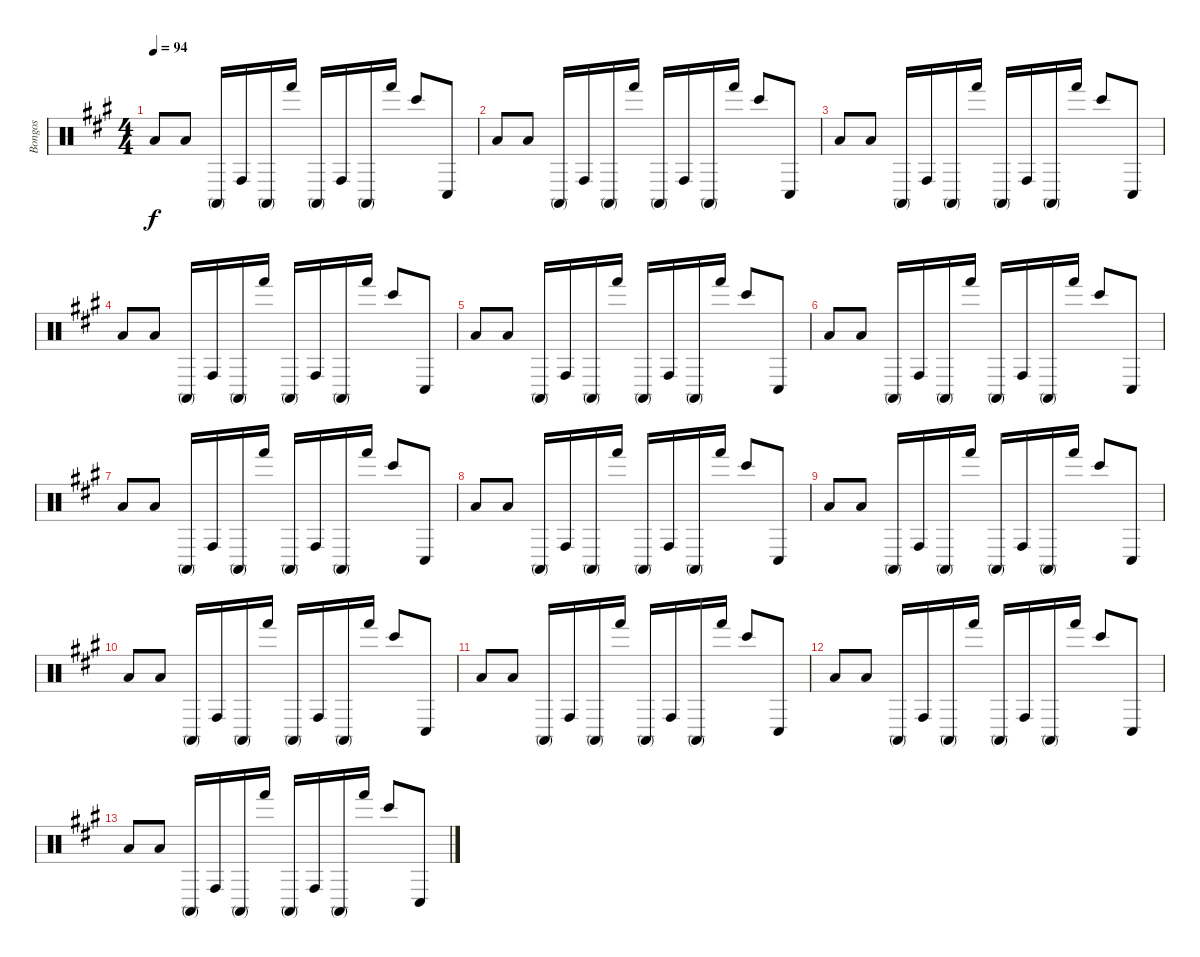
\track ("Bongos" "Bongos") {instrument percussion}
\staff {score}
\articulation defaults
\ts (4 4)
\tempo 94
\clef neutral
\ks a "Low Floor Tom (hit)".8{dy f} "Low Floor Tom (hit)".8 "Conga high (mute)".16 "Conga high (hit)".16 "Conga high (mute)".16 "Hand (hit)".16 "Conga high (mute)".16 "Conga high (hit)".16 "Conga high (mute)".16 "Hand (hit)".16 "Bongo High (hit)".8 "Conga low (hit)".8
|
"Low Floor Tom (hit)".8 "Low Floor Tom (hit)".8 "Conga high (mute)".16 "Conga high (hit)".16 "Conga high (mute)".16 "Hand (hit)".16 "Conga high (mute)".16 "Conga high (hit)".16 "Conga high (mute)".16 "Hand (hit)".16 "Bongo High (hit)".8 "Conga low (hit)".8 |
"Low Floor Tom (hit)".8 "Low Floor Tom (hit)".8 "Conga high (mute)".16 "Conga high (hit)".16 "Conga high (mute)".16 "Hand (hit)".16 "Conga high (mute)".16 "Conga high (hit)".16 "Conga high (mute)".16 "Hand (hit)".16 "Bongo High (hit)".8 "Conga low (hit)".8 |
"Low Floor Tom (hit)".8 "Low Floor Tom (hit)".8 "Conga high (mute)".16 "Conga high (hit)".16 "Conga high (mute)".16 "Hand (hit)".16 "Conga high (mute)".16 "Conga high (hit)".16 "Conga high (mute)".16 "Hand (hit)".16 "Bongo High (hit)".8 "Conga low (hit)".8 |
"Low Floor Tom (hit)".8 "Low Floor Tom (hit)".8 "Conga high (mute)".16 "Conga high (hit)".16 "Conga high (mute)".16 "Hand (hit)".16 "Conga high (mute)".16 "Conga high (hit)".16 "Conga high (mute)".16 "Hand (hit)".16 "Bongo High (hit)".8 "Conga low (hit)".8 |
"Low Floor Tom (hit)".8 "Low Floor Tom (hit)".8 "Conga high (mute)".16 "Conga high (hit)".16 "Conga high (mute)".16 "Hand (hit)".16 "Conga high (mute)".16 "Conga high (hit)".16 "Conga high (mute)".16 "Hand (hit)".16 "Bongo High (hit)".8 "Conga low (hit)".8 |
"Low Floor Tom (hit)".8{volume 8} "Low Floor Tom (hit)".8 "Conga high (mute)".16 "Conga high (hit)".16 "Conga high (mute)".16 "Hand (hit)".16 "Conga high (mute)".16 "Conga high (hit)".16 "Conga high (mute)".16 "Hand (hit)".16 "Bongo High (hit)".8 "Conga low (hit)".8 |
"Low Floor Tom (hit)".8 "Low Floor Tom (hit)".8 "Conga high (mute)".16 "Conga high (hit)".16 "Conga high (mute)".16 "Hand (hit)".16 "Conga high (mute)".16 "Conga high (hit)".16 "Conga high (mute)".16 "Hand (hit)".16 "Bongo High (hit)".8 "Conga low (hit)".8 |
"Low Floor Tom (hit)".8 "Low Floor Tom (hit)".8 "Conga high (mute)".16 "Conga high (hit)".16 "Conga high (mute)".16 "Hand (hit)".16 "Conga high (mute)".16 "Conga high (hit)".16 "Conga high (mute)".16 "Hand (hit)".16 "Bongo High (hit)".8 "Conga low (hit)".8 |
"Low Floor Tom (hit)".8 "Low Floor Tom (hit)".8 "Conga high (mute)".16 "Conga high (hit)".16 "Conga high (mute)".16 "Hand (hit)".16 "Conga high (mute)".16 "Conga high (hit)".16 "Conga high (mute)".16 "Hand (hit)".16 "Bongo High (hit)".8 "Conga low (hit)".8 |
"Low Floor Tom (hit)".8 "Low Floor Tom (hit)".8 "Conga high (mute)".16 "Conga high (hit)".16 "Conga high (mute)".16 "Hand (hit)".16 "Conga high (mute)".16 "Conga high (hit)".16 "Conga high (mute)".16 "Hand (hit)".16 "Bongo High (hit)".8 "Conga low (hit)".8 |
"Low Floor Tom (hit)".8 "Low Floor Tom (hit)".8 "Conga high (mute)".16 "Conga high (hit)".16 "Conga high (mute)".16 "Hand (hit)".16 "Conga high (mute)".16 "Conga high (hit)".16 "Conga high (mute)".16 "Hand (hit)".16 "Bongo High (hit)".8 "Conga low (hit)".8 |
"Low Floor Tom (hit)".8 "Low Floor Tom (hit)".8 "Conga high (mute)".16 "Conga high (hit)".16 "Conga high (mute)".16 "Hand (hit)".16 "Conga high (mute)".16 "Conga high (hit)".16 "Conga high (mute)".16 "Hand (hit)".16 "Bongo High (hit)".8 "Conga low (hit)".8
